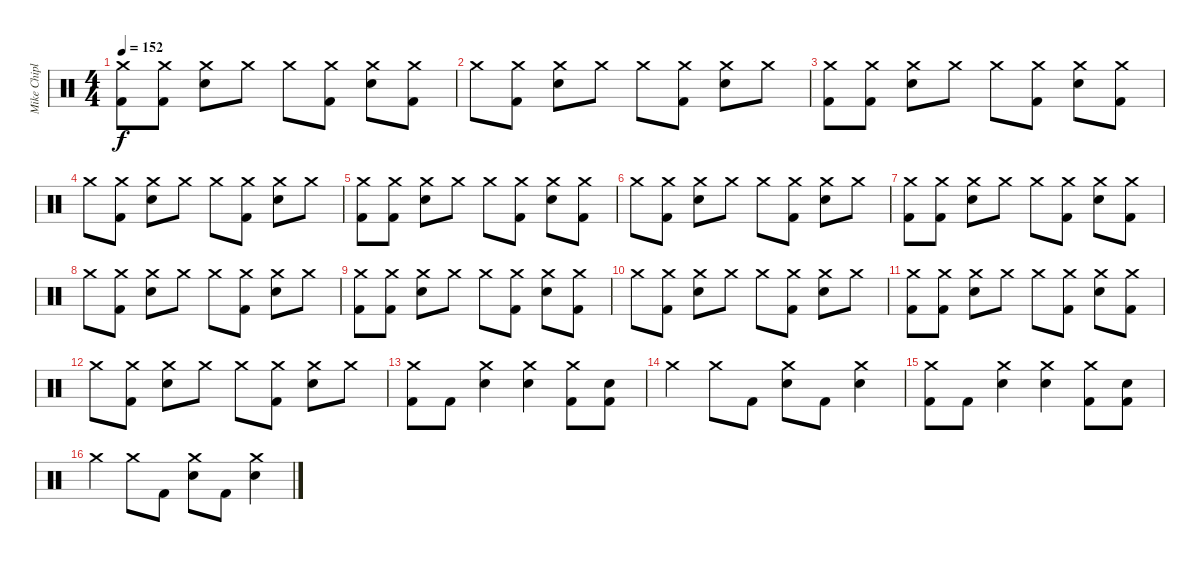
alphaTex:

\track ("Mike Chiplin" "Mike Chipl") {instrument percussion}
\staff {score}
\articulation defaults
\ts (4 4)
\tempo 152
\clef neutral
\ks c
("Crash medium (hit)" "Kick (hit) 2").8{dy f} ("Crash medium (hit)" "Kick (hit) 2").8 ("Crash medium (hit)" "Snare (hit) 2").8 "Crash medium (hit)".8 "Crash medium (hit)".8 ("Crash medium (hit)" "Kick (hit) 2").8 ("Crash medium (hit)" "Snare (hit) 2").8 ("Crash medium (hit)" "Kick (hit) 2").8 |
"Crash medium (hit)".8 ("Crash medium (hit)" "Kick (hit) 2").8 ("Crash medium (hit)" "Snare (hit) 2").8 "Crash medium (hit)".8 "Crash medium (hit)".8 ("Crash medium (hit)" "Kick (hit) 2").8 ("Crash medium (hit)" "Snare (hit) 2").8 "Crash medium (hit)".8 |
("Crash medium (hit)" "Kick (hit) 2").8 ("Crash medium (hit)" "Kick (hit) 2").8 ("Crash medium (hit)" "Snare (hit) 2").8 "Crash medium (hit)".8 "Crash medium (hit)".8 ("Crash medium (hit)" "Kick (hit) 2").8 ("Crash medium (hit)" "Snare (hit) 2").8 ("Crash medium (hit)" "Kick (hit) 2").8 |
"Crash medium (hit)".8 ("Crash medium (hit)" "Kick (hit) 2").8 ("Crash medium (hit)" "Snare (hit) 2").8 "Crash medium (hit)".8 "Crash medium (hit)".8 ("Crash medium (hit)" "Kick (hit) 2").8 ("Crash medium (hit)" "Snare (hit) 2").8 "Crash medium (hit)".8 |
("Crash medium (hit)" "Kick (hit) 2").8 ("Crash medium (hit)" "Kick (hit) 2").8 ("Crash medium (hit)" "Snare (hit) 2").8 "Crash medium (hit)".8 "Crash medium (hit)".8 ("Crash medium (hit)" "Kick (hit) 2").8 ("Crash medium (hit)" "Snare (hit) 2").8 ("Crash medium (hit)" "Kick (hit) 2").8 |
"Crash medium (hit)".8 ("Crash medium (hit)" "Kick (hit) 2").8 ("Crash medium (hit)" "Snare (hit) 2").8 "Crash medium (hit)".8 "Crash medium (hit)".8 ("Crash medium (hit)" "Kick (hit) 2").8 ("Crash medium (hit)" "Snare (hit) 2").8 "Crash medium (hit)".8 |
("Crash medium (hit)" "Kick (hit) 2").8 ("Crash medium (hit)" "Kick (hit) 2").8 ("Crash medium (hit)" "Snare (hit) 2").8 "Crash medium (hit)".8 "Crash medium (hit)".8 ("Crash medium (hit)" "Kick (hit) 2").8 ("Crash medium (hit)" "Snare (hit) 2").8 ("Crash medium (hit)" "Kick (hit) 2").8 |
"Crash medium (hit)".8 ("Crash medium (hit)" "Kick (hit) 2").8 ("Crash medium (hit)" "Snare (hit) 2").8 "Crash medium (hit)".8 "Crash medium (hit)".8 ("Crash medium (hit)" "Kick (hit) 2").8 ("Crash medium (hit)" "Snare (hit) 2").8 "Crash medium (hit)".8 |
("Crash medium (hit)" "Kick (hit) 2").8 ("Crash medium (hit)" "Kick (hit) 2").8 ("Crash medium (hit)" "Snare (hit) 2").8 "Crash medium (hit)".8 "Crash medium (hit)".8 ("Crash medium (hit)" "Kick (hit) 2").8 ("Crash medium (hit)" "Snare (hit) 2").8 ("Crash medium (hit)" "Kick (hit) 2").8 |
"Crash medium (hit)".8 ("Crash medium (hit)" "Kick (hit) 2").8 ("Crash medium (hit)" "Snare (hit) 2").8 "Crash medium (hit)".8 "Crash medium (hit)".8 ("Crash medium (hit)" "Kick (hit) 2").8 ("Crash medium (hit)" "Snare (hit) 2").8 "Crash medium (hit)".8 |
("Crash medium (hit)" "Kick (hit) 2").8 ("Crash medium (hit)" "Kick (hit) 2").8 ("Crash medium (hit)" "Snare (hit) 2").8 "Crash medium (hit)".8 "Crash medium (hit)".8 ("Crash medium (hit)" "Kick (hit) 2").8 ("Crash medium (hit)" "Snare (hit) 2").8 ("Crash medium (hit)" "Kick (hit) 2").8 |
"Crash medium (hit)".8 ("Crash medium (hit)" "Kick (hit) 2").8 ("Crash medium (hit)" "Snare (hit) 2").8 "Crash medium (hit)".8 "Crash medium (hit)".8 ("Crash medium (hit)" "Kick (hit) 2").8 ("Crash medium (hit)" "Snare (hit) 2").8 "Crash medium (hit)".8 |
("Crash medium (hit)" "Kick (hit) 2").8 "Kick (hit) 2".8 ("Crash medium (hit)" "Snare (hit) 2").4 ("Crash medium (hit)" "Snare (hit) 2").4 ("Crash medium (hit)" "Kick (hit) 2").8 ("Snare (hit) 2" "Kick (hit) 2").8 |
"Crash medium (hit)".4 "Crash medium (hit)".8 "Kick (hit) 2".8 ("Crash medium (hit)" "Snare (hit) 2").8 "Kick (hit) 2".8 ("Crash medium (hit)" "Snare (hit) 2").4 |
("Crash medium (hit)" "Kick (hit) 2").8 "Kick (hit) 2".8 ("Crash medium (hit)" "Snare (hit) 2").4 ("Crash medium (hit)" "Snare (hit) 2").4 ("Crash medium (hit)" "Kick (hit) 2").8 ("Snare (hit) 2" "Kick (hit) 2").8 |
"Crash medium (hit)".4 "Crash medium (hit)".8 "Kick (hit) 2".8 ("Crash medium (hit)" "Snare (hit) 2").8 "Kick (hit) 2".8 ("Crash medium (hit)" "Snare (hit) 2").4
